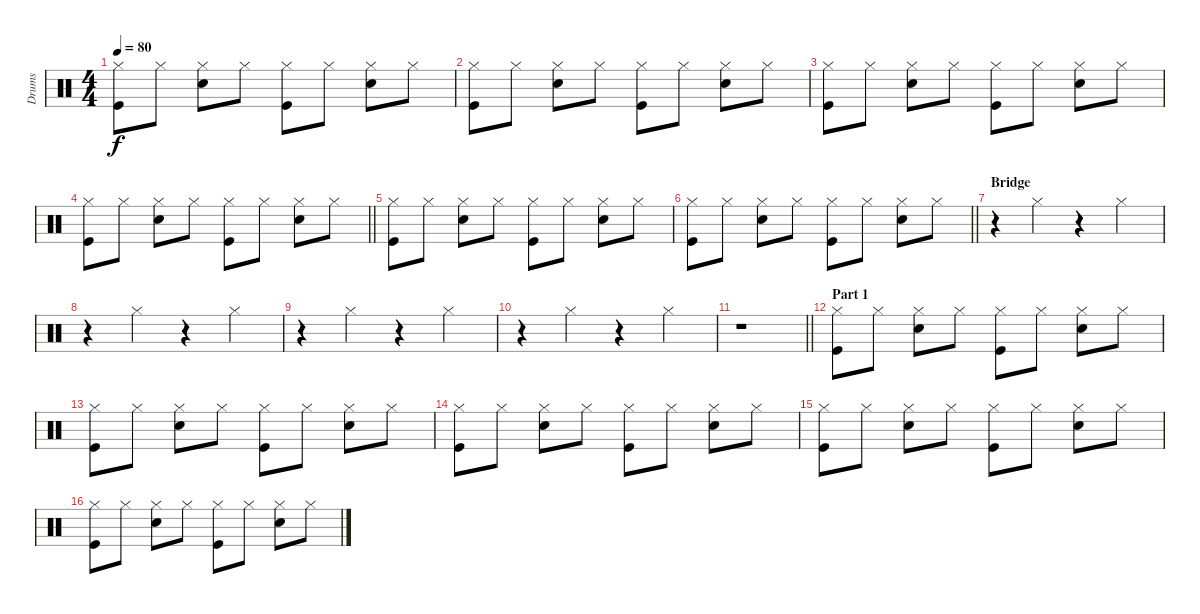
\track ("Drums" "Drums") {instrument percussion}
\staff {score}
\articulation defaults
\ts (4 4)
\tempo 80
\clef neutral
\ks c
("Hi-Hat (closed)" "Kick (hit)").8{dy f} "Hi-Hat (closed)".8 ("Hi-Hat (closed)" "Snare (hit) 2").8 "Hi-Hat (closed)".8 ("Hi-Hat (closed)" "Kick (hit)").8 "Hi-Hat (closed)".8 ("Hi-Hat (closed)" "Snare (hit) 2").8 "Hi-Hat (closed)".8 |
("Hi-Hat (closed)" "Kick (hit)").8 "Hi-Hat (closed)".8 ("Hi-Hat (closed)" "Snare (hit) 2").8 "Hi-Hat (closed)".8 ("Hi-Hat (closed)" "Kick (hit)").8 "Hi-Hat (closed)".8 ("Hi-Hat (closed)" "Snare (hit) 2").8 "Hi-Hat (closed)".8 |
("Hi-Hat (closed)" "Kick (hit)").8 "Hi-Hat (closed)".8 ("Hi-Hat (closed)" "Snare (hit) 2").8 "Hi-Hat (closed)".8 ("Hi-Hat (closed)" "Kick (hit)").8 "Hi-Hat (closed)".8 ("Hi-Hat (closed)" "Snare (hit) 2").8 "Hi-Hat (closed)".8 |
\barLineRight lightlight
("Hi-Hat (closed)" "Kick (hit)").8 "Hi-Hat (closed)".8 ("Hi-Hat (closed)" "Snare (hit) 2").8 "Hi-Hat (closed)".8 ("Hi-Hat (closed)" "Kick (hit)").8 "Hi-Hat (closed)".8 ("Hi-Hat (closed)" "Snare (hit) 2").8 "Hi-Hat (closed)".8 |
("Hi-Hat (closed)" "Kick (hit)").8 "Hi-Hat (closed)".8 ("Hi-Hat (closed)" "Snare (hit) 2").8 "Hi-Hat (closed)".8 ("Hi-Hat (closed)" "Kick (hit)").8 "Hi-Hat (closed)".8 ("Hi-Hat (closed)" "Snare (hit) 2").8 "Hi-Hat (closed)".8 |
\barLineRight lightlight
("Hi-Hat (closed)" "Kick (hit)").8 "Hi-Hat (closed)".8 ("Hi-Hat (closed)" "Snare (hit) 2").8 "Hi-Hat (closed)".8 ("Hi-Hat (closed)" "Kick (hit)").8 "Hi-Hat (closed)".8 ("Hi-Hat (closed)" "Snare (hit) 2").8 "Hi-Hat (closed)".8 |
\section ("" "Bridge")
r.4 "Hi-Hat (closed)".4 r.4 "Hi-Hat (closed)".4 |
r.4 "Hi-Hat (closed)".4 r.4 "Hi-Hat (closed)".4 |
r.4 "Hi-Hat (closed)".4 r.4 "Hi-Hat (closed)".4 |
r.4 "Hi-Hat (closed)".4 r.4 "Hi-Hat (closed)".4 |
\barLineRight lightlight
r.1 |
\section ("" "Part 1")
("Hi-Hat (closed)" "Kick (hit)").8 "Hi-Hat (closed)".8 ("Hi-Hat (closed)" "Snare (hit) 2").8 "Hi-Hat (closed)".8 ("Hi-Hat (closed)" "Kick (hit)").8 "Hi-Hat (closed)".8 ("Hi-Hat (closed)" "Snare (hit) 2").8 "Hi-Hat (closed)".8 |
("Hi-Hat (closed)" "Kick (hit)").8 "Hi-Hat (closed)".8 ("Hi-Hat (closed)" "Snare (hit) 2").8 "Hi-Hat (closed)".8 ("Hi-Hat (closed)" "Kick (hit)").8 "Hi-Hat (closed)".8 ("Hi-Hat (closed)" "Snare (hit) 2").8 "Hi-Hat (closed)".8 |
("Hi-Hat (closed)" "Kick (hit)").8 "Hi-Hat (closed)".8 ("Hi-Hat (closed)" "Snare (hit) 2").8 "Hi-Hat (closed)".8 ("Hi-Hat (closed)" "Kick (hit)").8 "Hi-Hat (closed)".8 ("Hi-Hat (closed)" "Snare (hit) 2").8 "Hi-Hat (closed)".8 |
("Hi-Hat (closed)" "Kick (hit)").8 "Hi-Hat (closed)".8 ("Hi-Hat (closed)" "Snare (hit) 2").8 "Hi-Hat (closed)".8 ("Hi-Hat (closed)" "Kick (hit)").8 "Hi-Hat (closed)".8 ("Hi-Hat (closed)" "Snare (hit) 2").8 "Hi-Hat (closed)".8 |
("Hi-Hat (closed)" "Kick (hit)").8 "Hi-Hat (closed)".8 ("Hi-Hat (closed)" "Snare (hit) 2").8 "Hi-Hat (closed)".8 ("Hi-Hat (closed)" "Kick (hit)").8 "Hi-Hat (closed)".8 ("Hi-Hat (closed)" "Snare (hit) 2").8 "Hi-Hat (closed)".8
